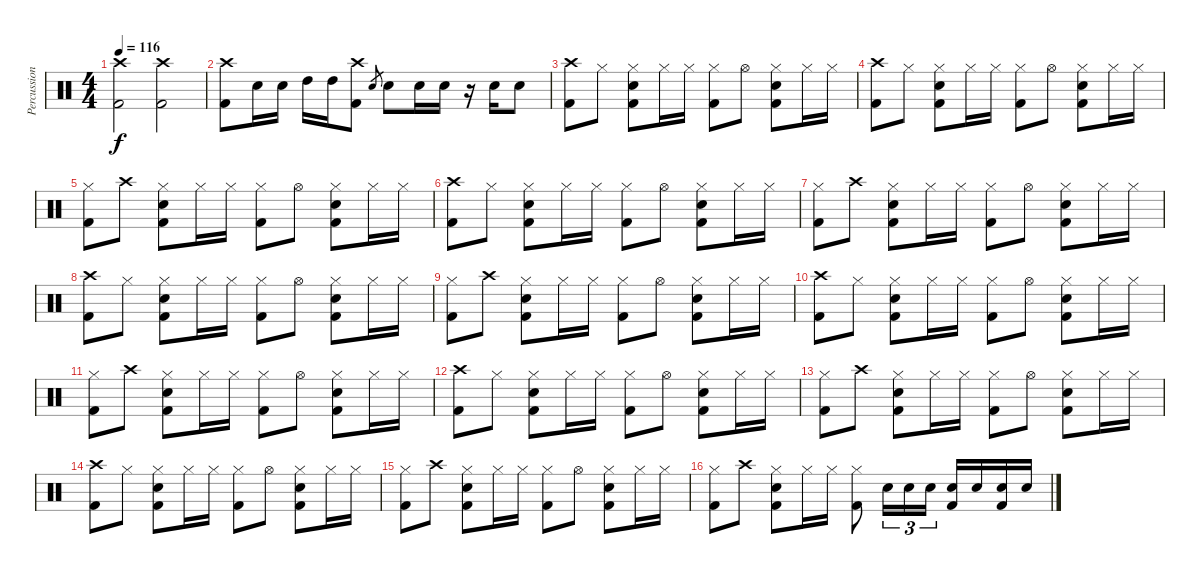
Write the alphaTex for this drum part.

\track ("Percussion" "Percussion") {instrument percussion}
\staff {score}
\articulation defaults
\ts (4 4)
\tempo 116
\clef neutral
\ks c
("Crash high (hit)" "Kick (hit) 2").2{dy f} ("Crash high (hit)" "Kick (hit) 2").2 |
("Crash high (hit)" "Kick (hit) 2").8 "Snare (hit) 2".16 "Snare (hit) 2".16 "High Tom (hit)".16 "High Tom (hit)".16 ("Crash high (hit)" "Kick (hit) 2").8 "Snare (hit) 2".8{gr} "Snare (hit) 2".8 "Snare (hit) 2".16 "Snare (hit) 2".16 r.16 "Snare (hit) 2".16 "Snare (hit) 2".8 |
("Crash high (hit)" "Kick (hit) 2").8 "Hi-Hat (closed)".8 ("Hi-Hat (closed)" "Snare (hit) 2" "Kick (hit) 2").8 "Hi-Hat (closed)".16 "Hi-Hat (closed)".16 ("Hi-Hat (closed)" "Kick (hit) 2").8 "Hi-Hat (open)".8 ("Hi-Hat (closed)" "Snare (hit) 2" "Kick (hit) 2").8 "Hi-Hat (closed)".16 "Hi-Hat (closed)".16 |
("Crash high (hit)" "Kick (hit) 2").8 "Hi-Hat (closed)".8 ("Hi-Hat (closed)" "Snare (hit) 2" "Kick (hit) 2").8 "Hi-Hat (closed)".16 "Hi-Hat (closed)".16 ("Hi-Hat (closed)" "Kick (hit) 2").8 "Hi-Hat (open)".8 ("Hi-Hat (closed)" "Snare (hit) 2" "Kick (hit) 2").8 "Hi-Hat (closed)".16 "Hi-Hat (closed)".16 |
("Hi-Hat (closed)" "Kick (hit) 2").8 "Crash high (hit)".8 ("Hi-Hat (closed)" "Snare (hit) 2" "Kick (hit) 2").8 "Hi-Hat (closed)".16 "Hi-Hat (closed)".16 ("Hi-Hat (closed)" "Kick (hit) 2").8 "Hi-Hat (open)".8 ("Hi-Hat (closed)" "Snare (hit) 2" "Kick (hit) 2").8 "Hi-Hat (closed)".16 "Hi-Hat (closed)".16 |
("Crash high (hit)" "Kick (hit) 2").8 "Hi-Hat (closed)".8 ("Hi-Hat (closed)" "Snare (hit) 2" "Kick (hit) 2").8 "Hi-Hat (closed)".16 "Hi-Hat (closed)".16 ("Hi-Hat (closed)" "Kick (hit) 2").8 "Hi-Hat (open)".8 ("Hi-Hat (closed)" "Snare (hit) 2" "Kick (hit) 2").8 "Hi-Hat (closed)".16 "Hi-Hat (closed)".16 |
("Hi-Hat (closed)" "Kick (hit) 2").8 "Crash high (hit)".8 ("Hi-Hat (closed)" "Snare (hit) 2" "Kick (hit) 2").8 "Hi-Hat (closed)".16 "Hi-Hat (closed)".16 ("Hi-Hat (closed)" "Kick (hit) 2").8 "Hi-Hat (open)".8 ("Hi-Hat (closed)" "Snare (hit) 2" "Kick (hit) 2").8 "Hi-Hat (closed)".16 "Hi-Hat (closed)".16 |
("Crash high (hit)" "Kick (hit) 2").8 "Hi-Hat (closed)".8 ("Hi-Hat (closed)" "Snare (hit) 2" "Kick (hit) 2").8 "Hi-Hat (closed)".16 "Hi-Hat (closed)".16 ("Hi-Hat (closed)" "Kick (hit) 2").8 "Hi-Hat (open)".8 ("Hi-Hat (closed)" "Snare (hit) 2" "Kick (hit) 2").8 "Hi-Hat (closed)".16 "Hi-Hat (closed)".16 |
("Hi-Hat (closed)" "Kick (hit) 2").8 "Crash high (hit)".8 ("Hi-Hat (closed)" "Snare (hit) 2" "Kick (hit) 2").8 "Hi-Hat (closed)".16 "Hi-Hat (closed)".16 ("Hi-Hat (closed)" "Kick (hit) 2").8 "Hi-Hat (open)".8 ("Hi-Hat (closed)" "Snare (hit) 2" "Kick (hit) 2").8 "Hi-Hat (closed)".16 "Hi-Hat (closed)".16 |
("Crash high (hit)" "Kick (hit) 2").8 "Hi-Hat (closed)".8 ("Hi-Hat (closed)" "Snare (hit) 2" "Kick (hit) 2").8 "Hi-Hat (closed)".16 "Hi-Hat (closed)".16 ("Hi-Hat (closed)" "Kick (hit) 2").8 "Hi-Hat (open)".8 ("Hi-Hat (closed)" "Snare (hit) 2" "Kick (hit) 2").8 "Hi-Hat (closed)".16 "Hi-Hat (closed)".16 |
("Hi-Hat (closed)" "Kick (hit) 2").8 "Crash high (hit)".8 ("Hi-Hat (closed)" "Snare (hit) 2" "Kick (hit) 2").8 "Hi-Hat (closed)".16 "Hi-Hat (closed)".16 ("Hi-Hat (closed)" "Kick (hit) 2").8 "Hi-Hat (open)".8 ("Hi-Hat (closed)" "Snare (hit) 2" "Kick (hit) 2").8 "Hi-Hat (closed)".16 "Hi-Hat (closed)".16 |
("Crash high (hit)" "Kick (hit) 2").8 "Hi-Hat (closed)".8 ("Hi-Hat (closed)" "Snare (hit) 2" "Kick (hit) 2").8 "Hi-Hat (closed)".16 "Hi-Hat (closed)".16 ("Hi-Hat (closed)" "Kick (hit) 2").8 "Hi-Hat (open)".8 ("Hi-Hat (closed)" "Snare (hit) 2" "Kick (hit) 2").8 "Hi-Hat (closed)".16 "Hi-Hat (closed)".16 |
("Hi-Hat (closed)" "Kick (hit) 2").8 "Crash high (hit)".8 ("Hi-Hat (closed)" "Snare (hit) 2" "Kick (hit) 2").8 "Hi-Hat (closed)".16 "Hi-Hat (closed)".16 ("Hi-Hat (closed)" "Kick (hit) 2").8 "Hi-Hat (open)".8 ("Hi-Hat (closed)" "Snare (hit) 2" "Kick (hit) 2").8 "Hi-Hat (closed)".16 "Hi-Hat (closed)".16 |
("Crash high (hit)" "Kick (hit) 2").8 "Hi-Hat (closed)".8 ("Hi-Hat (closed)" "Snare (hit) 2" "Kick (hit) 2").8 "Hi-Hat (closed)".16 "Hi-Hat (closed)".16 ("Hi-Hat (closed)" "Kick (hit) 2").8 "Hi-Hat (open)".8 ("Hi-Hat (closed)" "Snare (hit) 2" "Kick (hit) 2").8 "Hi-Hat (closed)".16 "Hi-Hat (closed)".16 |
("Hi-Hat (closed)" "Kick (hit) 2").8 "Crash high (hit)".8 ("Hi-Hat (closed)" "Snare (hit) 2" "Kick (hit) 2").8 "Hi-Hat (closed)".16 "Hi-Hat (closed)".16 ("Hi-Hat (closed)" "Kick (hit) 2").8 "Hi-Hat (open)".8 ("Hi-Hat (closed)" "Snare (hit) 2" "Kick (hit) 2").8 "Hi-Hat (closed)".16 "Hi-Hat (closed)".16 |
("Hi-Hat (closed)" "Kick (hit) 2").8 "Crash high (hit)".8 ("Hi-Hat (closed)" "Snare (hit) 2" "Kick (hit) 2").8 "Hi-Hat (closed)".16 "Hi-Hat (closed)".16 ("Hi-Hat (closed)" "Kick (hit) 2").8 "Snare (hit) 2".16{tu (3 2)} "Snare (hit) 2".16{tu (3 2)} "Snare (hit) 2".16{tu (3 2)} ("Snare (hit) 2" "Kick (hit) 2").16 "Snare (hit) 2".16 ("Snare (hit) 2" "Kick (hit) 2").16 "Snare (hit) 2".16
